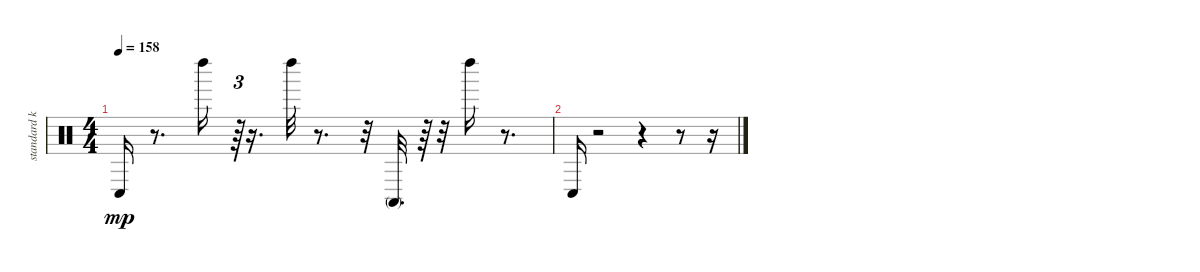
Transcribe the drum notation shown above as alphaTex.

\track ("standard kit" "standard k") {instrument percussion}
\staff {score}
\articulation defaults
\ts (4 4)
\tempo 158
\clef neutral
\ks c "Conga low (hit)".16{dy mp}
r.8{d} "Left Maraca (hit)".16 r.64{tu (3 2)} r.16{d} "Left Maraca (hit)".32 r.8{d} r.32 "Conga high (mute)".32{d} r.64 r.32 "Left Maraca (hit)".16 r.8{d} |
"Conga low (hit)".16 r.2 r.4 r.8 r.16
